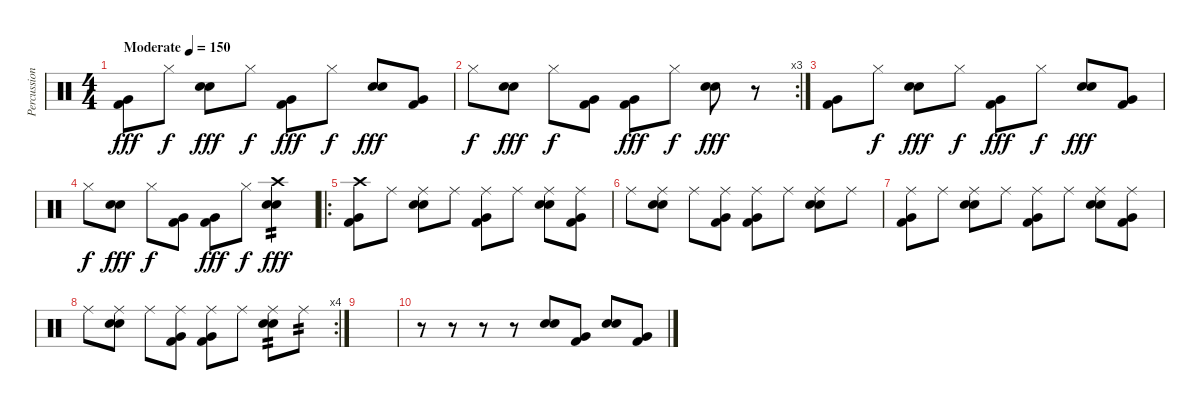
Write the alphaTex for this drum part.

\track ("Percussion" "Percussion") {instrument percussion}
\staff {score}
\articulation defaults
\ts (4 4)
\tempo (150 "Moderate")
\clef neutral
\ks c
("Very Low Tom (hit)" "Kick (hit) 2").8{dy fff} "Hi-Hat (closed)".8{dy f} ("Hand Clap (hit)" "Electric Snare (hit)").8{dy fff} "Hi-Hat (closed)".8{dy f} ("Very Low Tom (hit)" "Kick (hit) 2").8{dy fff} "Hi-Hat (closed)".8{dy f} ("Hand Clap (hit)" "Electric Snare (hit)").8{dy fff} ("Very Low Tom (hit)" "Kick (hit) 2").8 |
\rc 3 "Hi-Hat (closed)".8{dy f}
("Hand Clap (hit)" "Electric Snare (hit)").8{dy fff} "Hi-Hat (closed)".8{dy f} ("Very Low Tom (hit)" "Kick (hit) 2").8 ("Very Low Tom (hit)" "Kick (hit) 2").8{dy fff} "Hi-Hat (closed)".8{dy f} ("Hand Clap (hit)" "Electric Snare (hit)").8{dy fff} r.8 |
("Very Low Tom (hit)" "Kick (hit) 2").8 "Hi-Hat (closed)".8{dy f} ("Hand Clap (hit)" "Electric Snare (hit)").8{dy fff} "Hi-Hat (closed)".8{dy f} ("Very Low Tom (hit)" "Kick (hit) 2").8{dy fff} "Hi-Hat (closed)".8{dy f} ("Hand Clap (hit)" "Electric Snare (hit)").8{dy fff} ("Very Low Tom (hit)" "Kick (hit) 2").8 |
"Hi-Hat (closed)".8{dy f} ("Hand Clap (hit)" "Electric Snare (hit)").8{dy fff} "Hi-Hat (closed)".8{dy f} ("Very Low Tom (hit)" "Kick (hit) 2").8 ("Very Low Tom (hit)" "Kick (hit) 2").8{dy fff} "Hi-Hat (closed)".8{dy f} ("Crash high (hit)" "Hand Clap (hit)" "Electric Snare (hit)").4{tp 2 dy fff} |
\ro
("Crash high (hit)" "Very Low Tom (hit)" "Kick (hit) 2").8 "Ride (middle)".8 ("Ride (middle)" "Hand Clap (hit)" "Electric Snare (hit)").8 "Ride (middle)".8 ("Ride (middle)" "Very Low Tom (hit)" "Kick (hit) 2").8 "Ride (middle)".8 ("Ride (middle)" "Hand Clap (hit)" "Electric Snare (hit)").8 ("Ride (middle)" "Very Low Tom (hit)" "Kick (hit) 2").8 |
"Ride (middle)".8 ("Ride (middle)" "Hand Clap (hit)" "Electric Snare (hit)").8 "Ride (middle)".8 ("Ride (middle)" "Very Low Tom (hit)" "Kick (hit) 2").8 ("Ride (middle)" "Very Low Tom (hit)" "Kick (hit) 2").8 "Ride (middle)".8 ("Ride (middle)" "Hand Clap (hit)" "Electric Snare (hit)").8 "Ride (middle)".8 |
("Ride (middle)" "Very Low Tom (hit)" "Kick (hit) 2").8 "Ride (middle)".8 ("Ride (middle)" "Hand Clap (hit)" "Electric Snare (hit)").8 "Ride (middle)".8 ("Ride (middle)" "Very Low Tom (hit)" "Kick (hit) 2").8 "Ride (middle)".8 ("Ride (middle)" "Hand Clap (hit)" "Electric Snare (hit)").8 ("Ride (middle)" "Very Low Tom (hit)" "Kick (hit) 2").8 |
\rc 4 "Ride (middle)".8
("Ride (middle)" "Hand Clap (hit)" "Electric Snare (hit)").8 "Ride (middle)".8 ("Ride (middle)" "Very Low Tom (hit)" "Kick (hit) 2").8 ("Ride (middle)" "Very Low Tom (hit)" "Kick (hit) 2").8 "Ride (middle)".8 ("Ride (middle)" "Hand Clap (hit)" "Electric Snare (hit)").8{tp 2} "Ride (middle)".8{tp 2} |
|
r.8 r.8 r.8 r.8 ("Hand Clap (hit)" "Electric Snare (hit)").8 ("Very Low Tom (hit)" "Kick (hit) 2").8 ("Hand Clap (hit)" "Electric Snare (hit)").8 ("Very Low Tom (hit)" "Kick (hit) 2").8
